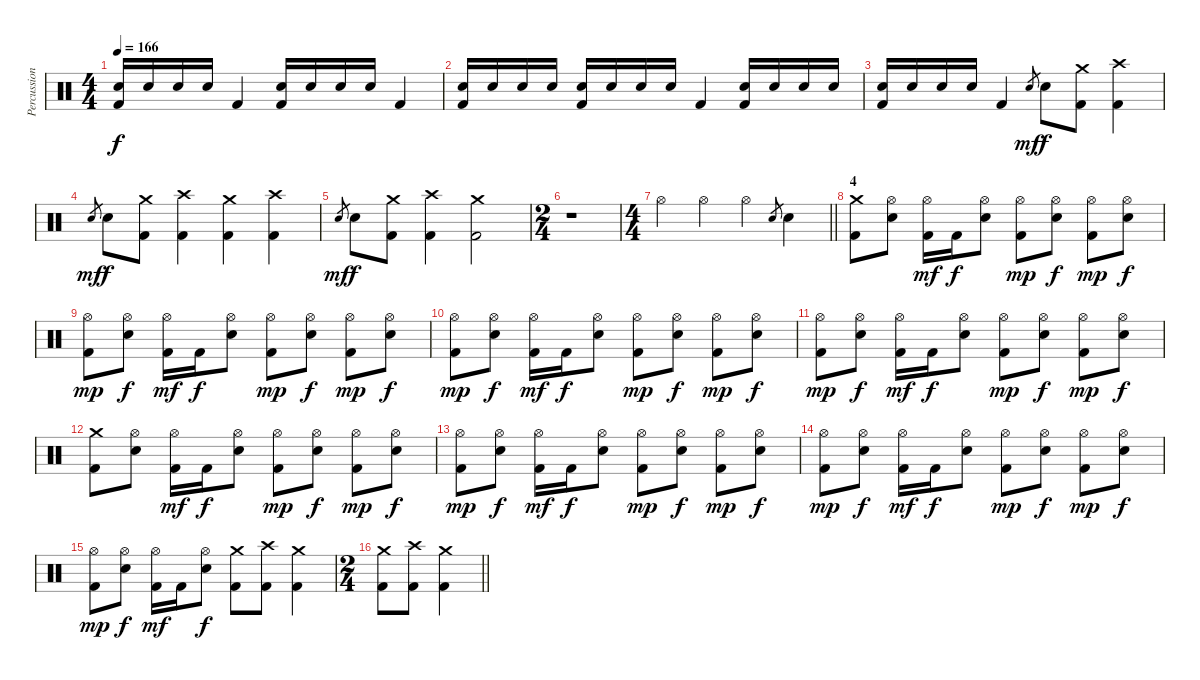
\track ("Percussion" "Percussion") {instrument percussion}
\staff {score}
\articulation defaults
\ts (4 4)
\tempo 166
\clef neutral
\ks c
("Electric Snare (hit)" "Kick (hit) 2").16{dy f} "Electric Snare (hit)".16 "Electric Snare (hit)".16 "Electric Snare (hit)".16 "Kick (hit) 2".4 ("Electric Snare (hit)" "Kick (hit) 2").16 "Electric Snare (hit)".16 "Electric Snare (hit)".16 "Electric Snare (hit)".16 "Kick (hit) 2".4 |
("Electric Snare (hit)" "Kick (hit) 2").16 "Electric Snare (hit)".16 "Electric Snare (hit)".16 "Electric Snare (hit)".16 ("Electric Snare (hit)" "Kick (hit) 2").16 "Electric Snare (hit)".16 "Electric Snare (hit)".16 "Electric Snare (hit)".16 "Kick (hit) 2".4 ("Electric Snare (hit)" "Kick (hit) 2").16 "Electric Snare (hit)".16 "Electric Snare (hit)".16 "Electric Snare (hit)".16 |
("Electric Snare (hit)" "Kick (hit) 2").16 "Electric Snare (hit)".16 "Electric Snare (hit)".16 "Electric Snare (hit)".16 "Kick (hit) 2".4 "Electric Snare (hit)".8{gr dy mf} "Electric Snare (hit)".8{dy f} ("Crash medium (hit)" "Kick (hit) 2").8 ("Crash high (hit)" "Kick (hit) 2").4 |
"Electric Snare (hit)".8{gr dy mf} "Electric Snare (hit)".8{dy f} ("Crash medium (hit)" "Kick (hit) 2").8 ("Crash high (hit)" "Kick (hit) 2").4 ("Crash medium (hit)" "Kick (hit) 2").4 ("Crash high (hit)" "Kick (hit) 2").4 |
"Electric Snare (hit)".8{gr dy mf} "Electric Snare (hit)".8{dy f} ("Crash medium (hit)" "Kick (hit) 2").8 ("Crash high (hit)" "Kick (hit) 2").4 ("Crash medium (hit)" "Kick (hit) 2").2 |
\ts (2 4)
r.1 |
\ts (4 4)
\barLineRight lightlight "Hi-Hat (open)".4 "Hi-Hat (open)".4 "Hi-Hat (open)".4 "Electric Snare (hit)".8{gr} "Electric Snare (hit)".4
|
\section ("" "4")
("Crash medium (hit)" "Kick (hit) 2").8 ("Hi-Hat (open)" "Electric Snare (hit)").8 ("Hi-Hat (open)" "Kick (hit) 2").16{dy mf} "Kick (hit) 2".16{dy f} ("Hi-Hat (open)" "Electric Snare (hit)").8 ("Hi-Hat (open)" "Kick (hit) 2").8{dy mp} ("Hi-Hat (open)" "Electric Snare (hit)").8{dy f} ("Hi-Hat (open)" "Kick (hit) 2").8{dy mp} ("Hi-Hat (open)" "Electric Snare (hit)").8{dy f} |
("Hi-Hat (open)" "Kick (hit) 2").8{dy mp} ("Hi-Hat (open)" "Electric Snare (hit)").8{dy f} ("Hi-Hat (open)" "Kick (hit) 2").16{dy mf} "Kick (hit) 2".16{dy f} ("Hi-Hat (open)" "Electric Snare (hit)").8 ("Hi-Hat (open)" "Kick (hit) 2").8{dy mp} ("Hi-Hat (open)" "Electric Snare (hit)").8{dy f} ("Hi-Hat (open)" "Kick (hit) 2").8{dy mp} ("Hi-Hat (open)" "Electric Snare (hit)").8{dy f} |
("Hi-Hat (open)" "Kick (hit) 2").8{dy mp} ("Hi-Hat (open)" "Electric Snare (hit)").8{dy f} ("Hi-Hat (open)" "Kick (hit) 2").16{dy mf} "Kick (hit) 2".16{dy f} ("Hi-Hat (open)" "Electric Snare (hit)").8 ("Hi-Hat (open)" "Kick (hit) 2").8{dy mp} ("Hi-Hat (open)" "Electric Snare (hit)").8{dy f} ("Hi-Hat (open)" "Kick (hit) 2").8{dy mp} ("Hi-Hat (open)" "Electric Snare (hit)").8{dy f} |
("Hi-Hat (open)" "Kick (hit) 2").8{dy mp} ("Hi-Hat (open)" "Electric Snare (hit)").8{dy f} ("Hi-Hat (open)" "Kick (hit) 2").16{dy mf} "Kick (hit) 2".16{dy f} ("Hi-Hat (open)" "Electric Snare (hit)").8 ("Hi-Hat (open)" "Kick (hit) 2").8{dy mp} ("Hi-Hat (open)" "Electric Snare (hit)").8{dy f} ("Hi-Hat (open)" "Kick (hit) 2").8{dy mp} ("Hi-Hat (open)" "Electric Snare (hit)").8{dy f} |
("Crash medium (hit)" "Kick (hit) 2").8 ("Hi-Hat (open)" "Electric Snare (hit)").8 ("Hi-Hat (open)" "Kick (hit) 2").16{dy mf} "Kick (hit) 2".16{dy f} ("Hi-Hat (open)" "Electric Snare (hit)").8 ("Hi-Hat (open)" "Kick (hit) 2").8{dy mp} ("Hi-Hat (open)" "Electric Snare (hit)").8{dy f} ("Hi-Hat (open)" "Kick (hit) 2").8{dy mp} ("Hi-Hat (open)" "Electric Snare (hit)").8{dy f} |
("Hi-Hat (open)" "Kick (hit) 2").8{dy mp} ("Hi-Hat (open)" "Electric Snare (hit)").8{dy f} ("Hi-Hat (open)" "Kick (hit) 2").16{dy mf} "Kick (hit) 2".16{dy f} ("Hi-Hat (open)" "Electric Snare (hit)").8 ("Hi-Hat (open)" "Kick (hit) 2").8{dy mp} ("Hi-Hat (open)" "Electric Snare (hit)").8{dy f} ("Hi-Hat (open)" "Kick (hit) 2").8{dy mp} ("Hi-Hat (open)" "Electric Snare (hit)").8{dy f} |
("Hi-Hat (open)" "Kick (hit) 2").8{dy mp} ("Hi-Hat (open)" "Electric Snare (hit)").8{dy f} ("Hi-Hat (open)" "Kick (hit) 2").16{dy mf} "Kick (hit) 2".16{dy f} ("Hi-Hat (open)" "Electric Snare (hit)").8 ("Hi-Hat (open)" "Kick (hit) 2").8{dy mp} ("Hi-Hat (open)" "Electric Snare (hit)").8{dy f} ("Hi-Hat (open)" "Kick (hit) 2").8{dy mp} ("Hi-Hat (open)" "Electric Snare (hit)").8{dy f} |
("Hi-Hat (open)" "Kick (hit) 2").8{dy mp} ("Hi-Hat (open)" "Electric Snare (hit)").8{dy f} ("Hi-Hat (open)" "Kick (hit) 2").16{dy mf} "Kick (hit) 2".16 ("Hi-Hat (open)" "Electric Snare (hit)").8{dy f} ("Crash medium (hit)" "Kick (hit) 2").8 ("Crash high (hit)" "Kick (hit) 2").8 ("Crash medium (hit)" "Kick (hit) 2").4 |
\ts (2 4)
\barLineRight lightlight
("Crash medium (hit)" "Kick (hit) 2").8 ("Crash high (hit)" "Kick (hit) 2").8 ("Crash medium (hit)" "Kick (hit) 2").4
